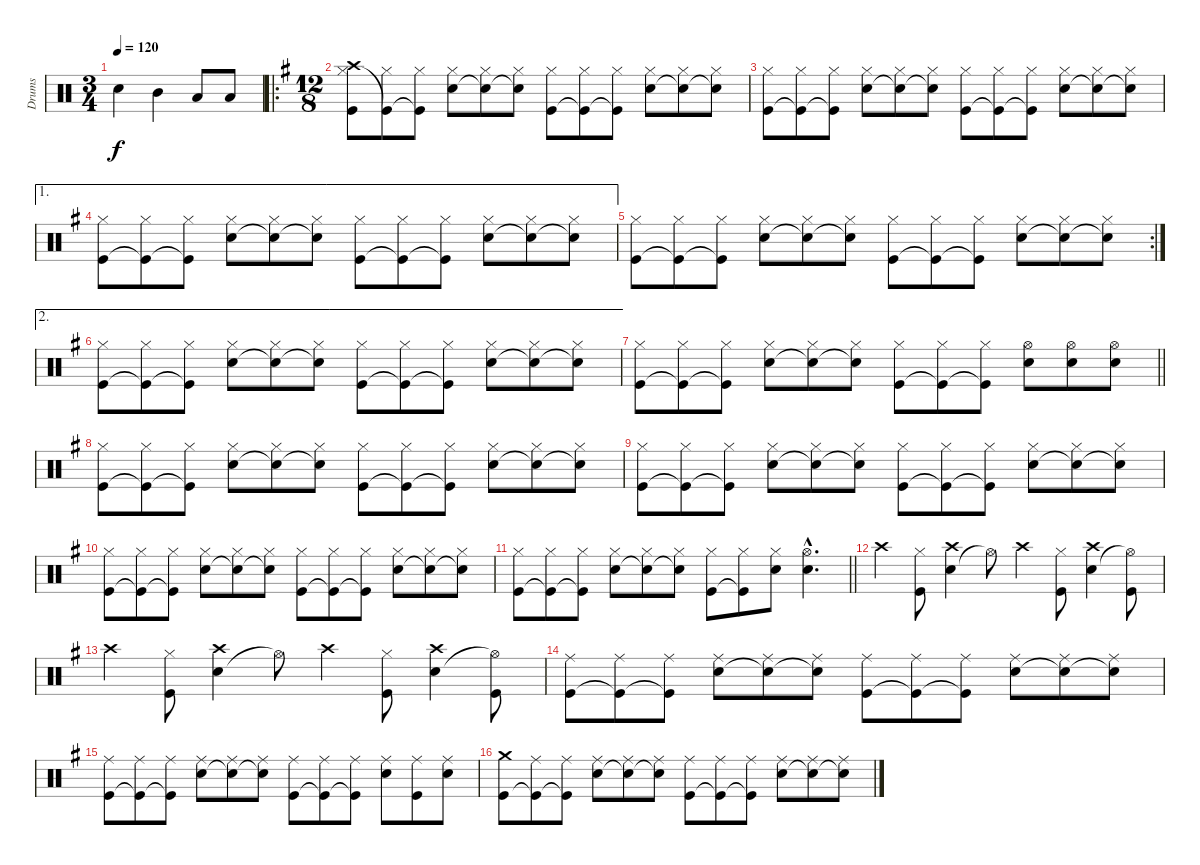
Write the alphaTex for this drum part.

\track ("Drums" "Drums") {instrument percussion}
\staff {score}
\articulation defaults
\ts (3 4)
\tempo 120
\clef neutral
\ks c "Snare (hit) 2".4{dy f} "Mid Tom (hit)".4 "Low Tom (hit)".8 "Low Tom (hit)".8
|
\ro
\ts (12 8)
\ks g
("Crash high (hit)" "Hi-Hat (closed)" "Kick (hit)").8 ("Hi-Hat (closed)" "Kick (hit)"{t}).8 ("Hi-Hat (closed)" "Kick (hit)"{t}).8 ("Snare (hit) 2" "Hi-Hat (closed)").8 ("Snare (hit) 2"{t} "Hi-Hat (closed)").8 ("Snare (hit) 2"{t} "Hi-Hat (closed)").8 ("Hi-Hat (closed)" "Kick (hit)").8 ("Hi-Hat (closed)" "Kick (hit)"{t}).8 ("Hi-Hat (closed)" "Kick (hit)"{t}).8 ("Snare (hit) 2" "Hi-Hat (closed)").8 ("Snare (hit) 2"{t} "Hi-Hat (closed)").8 ("Snare (hit) 2"{t} "Hi-Hat (closed)").8 |
("Hi-Hat (closed)" "Kick (hit)").8 ("Hi-Hat (closed)" "Kick (hit)"{t}).8 ("Hi-Hat (closed)" "Kick (hit)"{t}).8 ("Snare (hit) 2" "Hi-Hat (closed)").8 ("Snare (hit) 2"{t} "Hi-Hat (closed)").8 ("Snare (hit) 2"{t} "Hi-Hat (closed)").8 ("Hi-Hat (closed)" "Kick (hit)").8 ("Hi-Hat (closed)" "Kick (hit)"{t}).8 ("Hi-Hat (closed)" "Kick (hit)"{t}).8 ("Snare (hit) 2" "Hi-Hat (closed)").8 ("Snare (hit) 2"{t} "Hi-Hat (closed)").8 ("Snare (hit) 2"{t} "Hi-Hat (closed)").8 |
\ae 1
("Hi-Hat (closed)" "Kick (hit)").8 ("Hi-Hat (closed)" "Kick (hit)"{t}).8 ("Hi-Hat (closed)" "Kick (hit)"{t}).8 ("Snare (hit) 2" "Hi-Hat (closed)").8 ("Snare (hit) 2"{t} "Hi-Hat (closed)").8 ("Snare (hit) 2"{t} "Hi-Hat (closed)").8 ("Hi-Hat (closed)" "Kick (hit)").8 ("Hi-Hat (closed)" "Kick (hit)"{t}).8 ("Hi-Hat (closed)" "Kick (hit)"{t}).8 ("Snare (hit) 2" "Hi-Hat (closed)").8 ("Snare (hit) 2"{t} "Hi-Hat (closed)").8 ("Snare (hit) 2"{t} "Hi-Hat (closed)").8 |
\rc 2
("Hi-Hat (closed)" "Kick (hit)").8 ("Hi-Hat (closed)" "Kick (hit)"{t}).8 ("Hi-Hat (closed)" "Kick (hit)"{t}).8 ("Snare (hit) 2" "Hi-Hat (closed)").8 ("Snare (hit) 2"{t} "Hi-Hat (closed)").8 ("Snare (hit) 2"{t} "Hi-Hat (closed)").8 ("Hi-Hat (closed)" "Kick (hit)").8 ("Hi-Hat (closed)" "Kick (hit)"{t}).8 ("Hi-Hat (closed)" "Kick (hit)"{t}).8 ("Snare (hit) 2" "Hi-Hat (closed)").8 ("Snare (hit) 2"{t} "Hi-Hat (closed)").8 ("Snare (hit) 2"{t} "Hi-Hat (closed)").8 |
\ae 2
("Hi-Hat (closed)" "Kick (hit)").8 ("Hi-Hat (closed)" "Kick (hit)"{t}).8 ("Hi-Hat (closed)" "Kick (hit)"{t}).8 ("Snare (hit) 2" "Hi-Hat (closed)").8 ("Snare (hit) 2"{t} "Hi-Hat (closed)").8 ("Snare (hit) 2"{t} "Hi-Hat (closed)").8 ("Hi-Hat (closed)" "Kick (hit)").8 ("Hi-Hat (closed)" "Kick (hit)"{t}).8 ("Hi-Hat (closed)" "Kick (hit)"{t}).8 ("Snare (hit) 2" "Hi-Hat (closed)").8 ("Snare (hit) 2"{t} "Hi-Hat (closed)").8 ("Snare (hit) 2"{t} "Hi-Hat (closed)").8 |
\barLineRight lightlight
("Hi-Hat (closed)" "Kick (hit)").8 ("Hi-Hat (closed)" "Kick (hit)"{t}).8 ("Hi-Hat (closed)" "Kick (hit)"{t}).8 ("Snare (hit) 2" "Hi-Hat (closed)").8 ("Snare (hit) 2"{t} "Hi-Hat (closed)").8 ("Snare (hit) 2"{t} "Hi-Hat (closed)").8 ("Hi-Hat (closed)" "Kick (hit)").8 ("Hi-Hat (closed)" "Kick (hit)"{t}).8 ("Hi-Hat (closed)" "Kick (hit)"{t}).8 ("Snare (hit) 2" "Hi-Hat (open)").8 ("Snare (hit) 2" "Hi-Hat (open)").8 ("Snare (hit) 2" "Hi-Hat (open)").8 |
("Hi-Hat (closed)" "Kick (hit)").8 ("Hi-Hat (closed)" "Kick (hit)"{t}).8 ("Hi-Hat (closed)" "Kick (hit)"{t}).8 ("Snare (hit) 2" "Hi-Hat (closed)").8 ("Snare (hit) 2"{t} "Hi-Hat (closed)").8 ("Snare (hit) 2"{t} "Hi-Hat (closed)").8 ("Hi-Hat (closed)" "Kick (hit)").8 ("Hi-Hat (closed)" "Kick (hit)"{t}).8 ("Hi-Hat (closed)" "Kick (hit)"{t}).8 ("Snare (hit) 2" "Hi-Hat (closed)").8 ("Snare (hit) 2"{t} "Hi-Hat (closed)").8 ("Snare (hit) 2"{t} "Hi-Hat (closed)").8 |
("Hi-Hat (closed)" "Kick (hit)").8 ("Hi-Hat (closed)" "Kick (hit)"{t}).8 ("Hi-Hat (closed)" "Kick (hit)"{t}).8 ("Snare (hit) 2" "Hi-Hat (closed)").8 ("Snare (hit) 2"{t} "Hi-Hat (closed)").8 ("Snare (hit) 2"{t} "Hi-Hat (closed)").8 ("Hi-Hat (closed)" "Kick (hit)").8 ("Hi-Hat (closed)" "Kick (hit)"{t}).8 ("Hi-Hat (closed)" "Kick (hit)"{t}).8 ("Snare (hit) 2" "Hi-Hat (closed)").8 ("Snare (hit) 2"{t} "Hi-Hat (closed)").8 ("Snare (hit) 2"{t} "Hi-Hat (closed)").8 |
("Hi-Hat (closed)" "Kick (hit)").8 ("Hi-Hat (closed)" "Kick (hit)"{t}).8 ("Hi-Hat (closed)" "Kick (hit)"{t}).8 ("Snare (hit) 2" "Hi-Hat (closed)").8 ("Snare (hit) 2"{t} "Hi-Hat (closed)").8 ("Snare (hit) 2"{t} "Hi-Hat (closed)").8 ("Hi-Hat (closed)" "Kick (hit)").8 ("Hi-Hat (closed)" "Kick (hit)"{t}).8 ("Hi-Hat (closed)" "Kick (hit)"{t}).8 ("Snare (hit) 2" "Hi-Hat (closed)").8 ("Snare (hit) 2"{t} "Hi-Hat (closed)").8 ("Snare (hit) 2"{t} "Hi-Hat (closed)").8 |
\barLineRight lightlight
("Hi-Hat (closed)" "Kick (hit)").8 ("Hi-Hat (closed)" "Kick (hit)"{t}).8 ("Hi-Hat (closed)" "Kick (hit)"{t}).8 ("Snare (hit) 2" "Hi-Hat (closed)").8 ("Snare (hit) 2"{t} "Hi-Hat (closed)").8 ("Snare (hit) 2"{t} "Hi-Hat (closed)").8 ("Hi-Hat (closed)" "Kick (hit)").8 ("Hi-Hat (closed)" "Kick (hit)"{t}).8 ("Snare (hit) 2" "Hi-Hat (closed)").8 ("Snare (hit) 2"{hac} "Hi-Hat (open)"{hac}).4{d} |
"Crash high (hit)".4 ("Hi-Hat (closed)" "Kick (hit)").8 ("Snare (hit) 2" "Crash high (hit)").4 "Hi-Hat (open)"{t}.8 "Crash high (hit)".4 ("Hi-Hat (closed)" "Kick (hit)").8 ("Snare (hit) 2" "Crash high (hit)").4 ("Hi-Hat (open)"{t} "Kick (hit)").8 |
"Crash high (hit)".4 ("Hi-Hat (closed)" "Kick (hit)").8 ("Snare (hit) 2" "Crash high (hit)").4 "Hi-Hat (open)"{t}.8 "Crash high (hit)".4 ("Hi-Hat (closed)" "Kick (hit)").8 ("Snare (hit) 2" "Crash high (hit)").4 ("Hi-Hat (open)"{t} "Kick (hit)").8 |
("Ride (middle)" "Kick (hit)").8 ("Ride (middle)" "Kick (hit)"{t}).8 ("Ride (middle)" "Kick (hit)"{t}).8 ("Snare (hit) 2" "Ride (middle)").8 ("Snare (hit) 2"{t} "Ride (middle)").8 ("Snare (hit) 2"{t} "Ride (middle)").8 ("Ride (middle)" "Kick (hit)").8 ("Ride (middle)" "Kick (hit)"{t}).8 ("Ride (middle)" "Kick (hit)"{t}).8 ("Snare (hit) 2" "Ride (middle)").8 ("Snare (hit) 2"{t} "Ride (middle)").8 ("Snare (hit) 2"{t} "Ride (middle)").8 |
("Ride (middle)" "Kick (hit)").8 ("Ride (middle)" "Kick (hit)"{t}).8 ("Ride (middle)" "Kick (hit)"{t}).8 ("Snare (hit) 2" "Ride (middle)").8 ("Snare (hit) 2"{t} "Ride (middle)").8 ("Snare (hit) 2"{t} "Ride (middle)").8 ("Ride (middle)" "Kick (hit)").8 ("Ride (middle)" "Kick (hit)"{t}).8 ("Ride (middle)" "Kick (hit)"{t}).8 ("Snare (hit) 2" "Ride (middle)").8 ("Ride (middle)" "Kick (hit)").8 ("Snare (hit) 2" "Ride (middle)").8 |
("Crash medium (hit)" "Kick (hit)").8 ("Ride (middle)" "Kick (hit)"{t}).8 ("Ride (middle)" "Kick (hit)"{t}).8 ("Snare (hit) 2" "Ride (middle)").8 ("Snare (hit) 2"{t} "Ride (middle)").8 ("Snare (hit) 2"{t} "Ride (middle)").8 ("Ride (middle)" "Kick (hit)").8 ("Ride (middle)" "Kick (hit)"{t}).8 ("Ride (middle)" "Kick (hit)"{t}).8 ("Snare (hit) 2" "Ride (middle)").8 ("Snare (hit) 2"{t} "Ride (middle)").8 ("Snare (hit) 2"{t} "Ride (middle)").8
